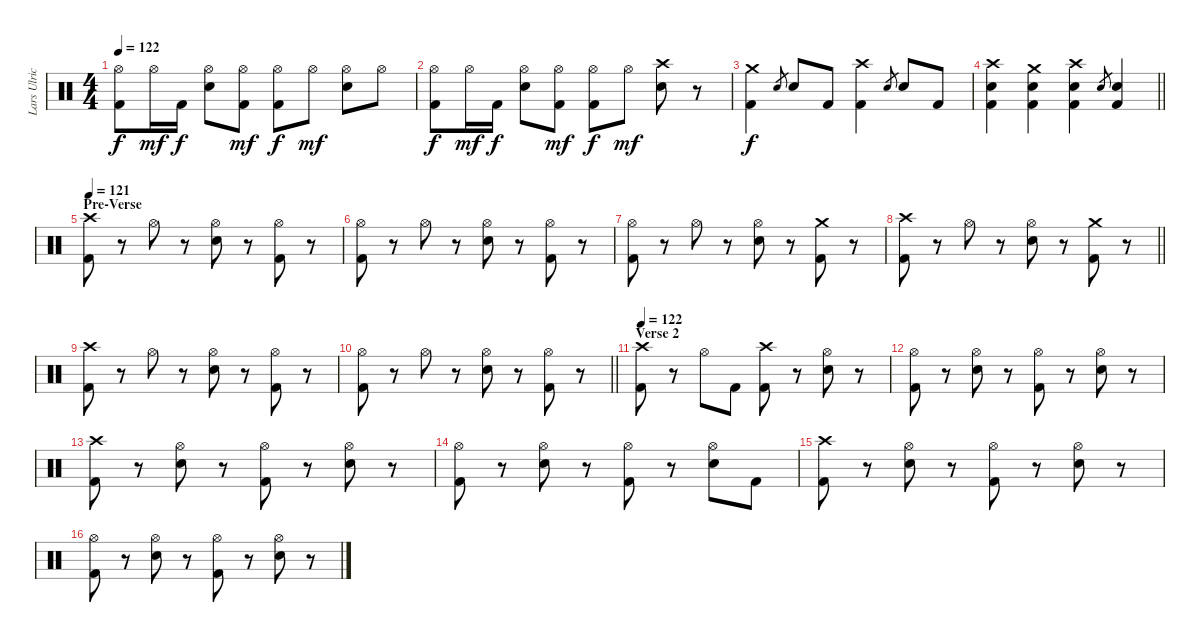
\track ("Lars Ulrich" "Lars Ulric") {instrument percussion}
\staff {score}
\articulation defaults
\ts (4 4)
\tempo 122
\clef neutral
\ks c
("Hi-Hat (open)" "Kick (hit) 2").8{dy f} "Hi-Hat (open)".16{dy mf} "Kick (hit) 2".16{dy f} ("Hi-Hat (open)" "Snare (hit) 2").8 ("Hi-Hat (open)" "Kick (hit) 2").8{dy mf} ("Hi-Hat (open)" "Kick (hit) 2").8{dy f} "Hi-Hat (open)".8{dy mf} ("Hi-Hat (open)" "Snare (hit) 2").8 "Hi-Hat (open)".8 |
("Hi-Hat (open)" "Kick (hit) 2").8{dy f} "Hi-Hat (open)".16{dy mf} "Kick (hit) 2".16{dy f} ("Hi-Hat (open)" "Snare (hit) 2").8 ("Hi-Hat (open)" "Kick (hit) 2").8{dy mf} ("Hi-Hat (open)" "Kick (hit) 2").8{dy f} "Hi-Hat (open)".8{dy mf} ("Crash high (hit)" "Snare (hit) 2").8 r.8 |
("Crash medium (hit)" "Kick (hit) 2").4{dy f} "Snare (hit) 2".8{gr} "Snare (hit) 2".8 "Kick (hit) 2".8 ("Crash high (hit)" "Kick (hit) 2").4 "Snare (hit) 2".8{gr} "Snare (hit) 2".8 "Kick (hit) 2".8 |
\barLineRight lightlight
("Crash high (hit)" "Snare (hit) 2" "Kick (hit) 2").4 ("Crash medium (hit)" "Snare (hit) 2" "Kick (hit) 2").4 ("Crash high (hit)" "Snare (hit) 2" "Kick (hit) 2").4 "Snare (hit) 2".8{gr} ("Snare (hit) 2" "Kick (hit) 2").4 |
\section ("" "Pre-Verse")
\tempo 121
("Crash high (hit)" "Kick (hit) 2").8 r.8 "Hi-Hat (open)".8 r.8 ("Hi-Hat (open)" "Snare (hit) 2").8 r.8 ("Hi-Hat (open)" "Kick (hit) 2").8 r.8 |
("Hi-Hat (open)" "Kick (hit) 2").8 r.8 "Hi-Hat (open)".8 r.8 ("Hi-Hat (open)" "Snare (hit) 2").8 r.8 ("Hi-Hat (open)" "Kick (hit) 2").8 r.8 |
("Hi-Hat (open)" "Kick (hit) 2").8 r.8 "Hi-Hat (open)".8 r.8 ("Hi-Hat (open)" "Snare (hit) 2").8 r.8 ("Crash medium (hit)" "Kick (hit) 2").8 r.8 |
\barLineRight lightlight
("Crash high (hit)" "Kick (hit) 2").8 r.8 "Hi-Hat (open)".8 r.8 ("Hi-Hat (open)" "Snare (hit) 2").8 r.8 ("Crash medium (hit)" "Kick (hit) 2").8 r.8 |
("Crash high (hit)" "Kick (hit) 2").8 r.8 "Hi-Hat (open)".8 r.8 ("Hi-Hat (open)" "Snare (hit) 2").8 r.8 ("Hi-Hat (open)" "Kick (hit) 2").8 r.8 |
\barLineRight lightlight
("Hi-Hat (open)" "Kick (hit) 2").8 r.8 "Hi-Hat (open)".8 r.8 ("Hi-Hat (open)" "Snare (hit) 2").8 r.8 ("Hi-Hat (open)" "Kick (hit) 2").8 r.8 |
\section ("" "Verse 2")
\tempo 122
("Crash high (hit)" "Kick (hit) 2").8 r.8 "Hi-Hat (open)".8 "Kick (hit) 2".8 ("Crash high (hit)" "Kick (hit) 2").8 r.8 ("Hi-Hat (open)" "Snare (hit) 2").8 r.8 |
("Hi-Hat (open)" "Kick (hit) 2").8 r.8 ("Hi-Hat (open)" "Snare (hit) 2").8 r.8 ("Hi-Hat (open)" "Kick (hit) 2").8 r.8 ("Hi-Hat (open)" "Snare (hit) 2").8 r.8 |
("Crash high (hit)" "Kick (hit) 2").8 r.8 ("Hi-Hat (open)" "Snare (hit) 2").8 r.8 ("Hi-Hat (open)" "Kick (hit) 2").8 r.8 ("Hi-Hat (open)" "Snare (hit) 2").8 r.8 |
("Hi-Hat (open)" "Kick (hit) 2").8 r.8 ("Hi-Hat (open)" "Snare (hit) 2").8 r.8 ("Hi-Hat (open)" "Kick (hit) 2").8 r.8 ("Hi-Hat (open)" "Snare (hit) 2").8 "Kick (hit) 2".8 |
("Crash high (hit)" "Kick (hit) 2").8 r.8 ("Hi-Hat (open)" "Snare (hit) 2").8 r.8 ("Hi-Hat (open)" "Kick (hit) 2").8 r.8 ("Hi-Hat (open)" "Snare (hit) 2").8 r.8 |
("Hi-Hat (open)" "Kick (hit) 2").8 r.8 ("Hi-Hat (open)" "Snare (hit) 2").8 r.8 ("Hi-Hat (open)" "Kick (hit) 2").8 r.8 ("Hi-Hat (open)" "Snare (hit) 2").8 r.8
